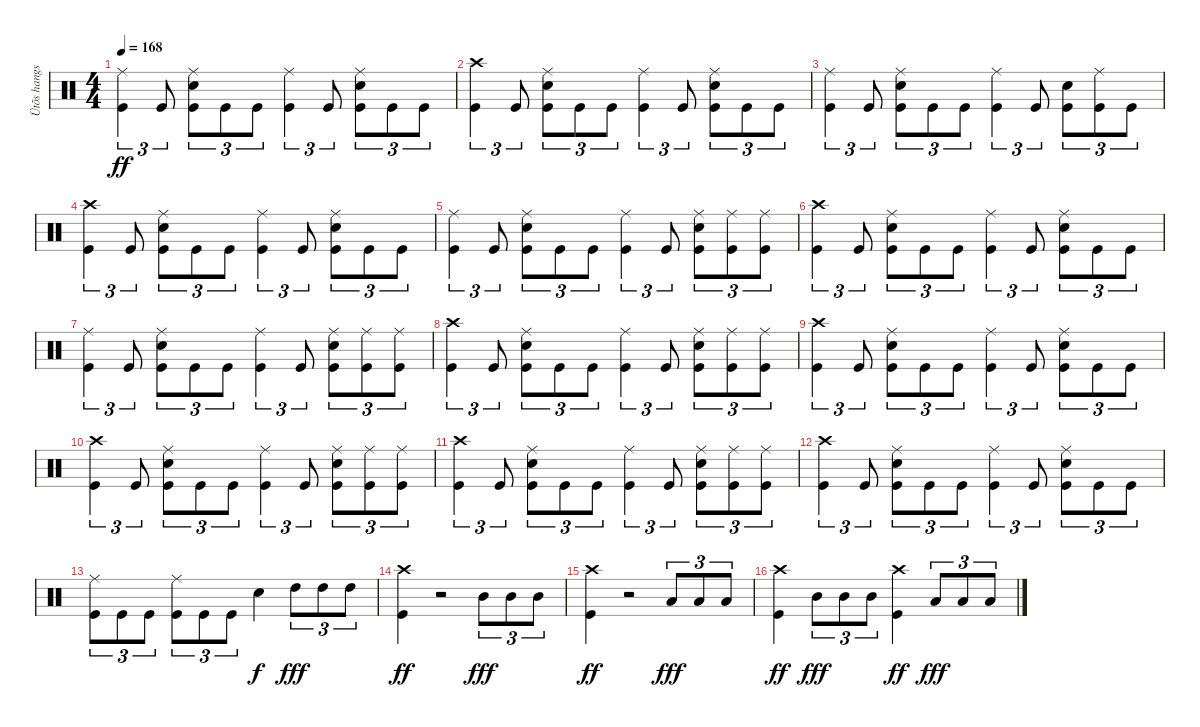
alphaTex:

\track ("Ütõs hangszer" "Ütõs hangs") {instrument percussion}
\staff {score}
\articulation defaults
\ts (4 4)
\tempo 168
\clef neutral
\ks c
("Ride (middle)" "Kick (hit)").4{tu (3 2) dy ff} "Kick (hit)".8{tu (3 2)} ("Ride (middle)" "Electric Snare (hit)" "Kick (hit)").8{tu (3 2)} "Kick (hit)".8{tu (3 2)} "Kick (hit)".8{tu (3 2)} ("Ride (middle)" "Kick (hit)").4{tu (3 2)} "Kick (hit)".8{tu (3 2)} ("Ride (middle)" "Electric Snare (hit)" "Kick (hit)").8{tu (3 2)} "Kick (hit)".8{tu (3 2)} "Kick (hit)".8{tu (3 2)} |
("Crash high (hit)" "Kick (hit)").4{tu (3 2)} "Kick (hit)".8{tu (3 2)} ("Ride (middle)" "Electric Snare (hit)" "Kick (hit)").8{tu (3 2)} "Kick (hit)".8{tu (3 2)} "Kick (hit)".8{tu (3 2)} ("Ride (middle)" "Kick (hit)").4{tu (3 2)} "Kick (hit)".8{tu (3 2)} ("Ride (middle)" "Electric Snare (hit)" "Kick (hit)").8{tu (3 2)} "Kick (hit)".8{tu (3 2)} "Kick (hit)".8{tu (3 2)} |
("Ride (middle)" "Kick (hit)").4{tu (3 2)} "Kick (hit)".8{tu (3 2)} ("Ride (middle)" "Electric Snare (hit)" "Kick (hit)").8{tu (3 2)} "Kick (hit)".8{tu (3 2)} "Kick (hit)".8{tu (3 2)} ("Ride (middle)" "Kick (hit)").4{tu (3 2)} "Kick (hit)".8{tu (3 2)} ("Electric Snare (hit)" "Kick (hit)").8{tu (3 2)} ("Ride (middle)" "Kick (hit)").8{tu (3 2)} "Kick (hit)".8{tu (3 2)} |
("Crash high (hit)" "Kick (hit)").4{tu (3 2)} "Kick (hit)".8{tu (3 2)} ("Ride (middle)" "Electric Snare (hit)" "Kick (hit)").8{tu (3 2)} "Kick (hit)".8{tu (3 2)} "Kick (hit)".8{tu (3 2)} ("Ride (middle)" "Kick (hit)").4{tu (3 2)} "Kick (hit)".8{tu (3 2)} ("Ride (middle)" "Electric Snare (hit)" "Kick (hit)").8{tu (3 2)} "Kick (hit)".8{tu (3 2)} "Kick (hit)".8{tu (3 2)} |
("Ride (middle)" "Kick (hit)").4{tu (3 2)} "Kick (hit)".8{tu (3 2)} ("Ride (middle)" "Electric Snare (hit)" "Kick (hit)").8{tu (3 2)} "Kick (hit)".8{tu (3 2)} "Kick (hit)".8{tu (3 2)} ("Ride (middle)" "Kick (hit)").4{tu (3 2)} "Kick (hit)".8{tu (3 2)} ("Ride (middle)" "Electric Snare (hit)" "Kick (hit)").8{tu (3 2)} ("Ride (middle)" "Kick (hit)").8{tu (3 2)} ("Ride (middle)" "Kick (hit)").8{tu (3 2)} |
("Crash high (hit)" "Kick (hit)").4{tu (3 2)} "Kick (hit)".8{tu (3 2)} ("Ride (middle)" "Electric Snare (hit)" "Kick (hit)").8{tu (3 2)} "Kick (hit)".8{tu (3 2)} "Kick (hit)".8{tu (3 2)} ("Ride (middle)" "Kick (hit)").4{tu (3 2)} "Kick (hit)".8{tu (3 2)} ("Ride (middle)" "Electric Snare (hit)" "Kick (hit)").8{tu (3 2)} "Kick (hit)".8{tu (3 2)} "Kick (hit)".8{tu (3 2)} |
("Ride (middle)" "Kick (hit)").4{tu (3 2)} "Kick (hit)".8{tu (3 2)} ("Ride (middle)" "Electric Snare (hit)" "Kick (hit)").8{tu (3 2)} "Kick (hit)".8{tu (3 2)} "Kick (hit)".8{tu (3 2)} ("Ride (middle)" "Kick (hit)").4{tu (3 2)} "Kick (hit)".8{tu (3 2)} ("Ride (middle)" "Electric Snare (hit)" "Kick (hit)").8{tu (3 2)} ("Ride (middle)" "Kick (hit)").8{tu (3 2)} ("Ride (middle)" "Kick (hit)").8{tu (3 2)} |
("Crash high (hit)" "Kick (hit)").4{tu (3 2)} "Kick (hit)".8{tu (3 2)} ("Ride (middle)" "Electric Snare (hit)" "Kick (hit)").8{tu (3 2)} "Kick (hit)".8{tu (3 2)} "Kick (hit)".8{tu (3 2)} ("Ride (middle)" "Kick (hit)").4{tu (3 2)} "Kick (hit)".8{tu (3 2)} ("Ride (middle)" "Electric Snare (hit)" "Kick (hit)").8{tu (3 2)} ("Ride (middle)" "Kick (hit)").8{tu (3 2)} ("Ride (middle)" "Kick (hit)").8{tu (3 2)} |
("Crash high (hit)" "Kick (hit)").4{tu (3 2)} "Kick (hit)".8{tu (3 2)} ("Ride (middle)" "Electric Snare (hit)" "Kick (hit)").8{tu (3 2)} "Kick (hit)".8{tu (3 2)} "Kick (hit)".8{tu (3 2)} ("Ride (middle)" "Kick (hit)").4{tu (3 2)} "Kick (hit)".8{tu (3 2)} ("Ride (middle)" "Electric Snare (hit)" "Kick (hit)").8{tu (3 2)} "Kick (hit)".8{tu (3 2)} "Kick (hit)".8{tu (3 2)} |
("Crash high (hit)" "Kick (hit)").4{tu (3 2)} "Kick (hit)".8{tu (3 2)} ("Ride (middle)" "Electric Snare (hit)" "Kick (hit)").8{tu (3 2)} "Kick (hit)".8{tu (3 2)} "Kick (hit)".8{tu (3 2)} ("Ride (middle)" "Kick (hit)").4{tu (3 2)} "Kick (hit)".8{tu (3 2)} ("Ride (middle)" "Electric Snare (hit)" "Kick (hit)").8{tu (3 2)} ("Ride (middle)" "Kick (hit)").8{tu (3 2)} ("Ride (middle)" "Kick (hit)").8{tu (3 2)} |
("Crash high (hit)" "Kick (hit)").4{tu (3 2)} "Kick (hit)".8{tu (3 2)} ("Ride (middle)" "Electric Snare (hit)" "Kick (hit)").8{tu (3 2)} "Kick (hit)".8{tu (3 2)} "Kick (hit)".8{tu (3 2)} ("Ride (middle)" "Kick (hit)").4{tu (3 2)} "Kick (hit)".8{tu (3 2)} ("Ride (middle)" "Electric Snare (hit)" "Kick (hit)").8{tu (3 2)} ("Ride (middle)" "Kick (hit)").8{tu (3 2)} ("Ride (middle)" "Kick (hit)").8{tu (3 2)} |
("Crash high (hit)" "Kick (hit)").4{tu (3 2)} "Kick (hit)".8{tu (3 2)} ("Ride (middle)" "Electric Snare (hit)" "Kick (hit)").8{tu (3 2)} "Kick (hit)".8{tu (3 2)} "Kick (hit)".8{tu (3 2)} ("Ride (middle)" "Kick (hit)").4{tu (3 2)} "Kick (hit)".8{tu (3 2)} ("Ride (middle)" "Electric Snare (hit)" "Kick (hit)").8{tu (3 2)} "Kick (hit)".8{tu (3 2)} "Kick (hit)".8{tu (3 2)} |
("Ride (middle)" "Kick (hit)").8{tu (3 2)} "Kick (hit)".8{tu (3 2)} "Kick (hit)".8{tu (3 2)} ("Ride (middle)" "Kick (hit)").8{tu (3 2)} "Kick (hit)".8{tu (3 2)} "Kick (hit)".8{tu (3 2)} "Electric Snare (hit)".4{dy f} "High Tom (hit)".8{tu (3 2) dy fff} "High Tom (hit)".8{tu (3 2)} "High Tom (hit)".8{tu (3 2)} |
("Crash high (hit)" "Kick (hit)").4{dy ff} r.2 "Mid Tom (hit)".8{tu (3 2) dy fff} "Mid Tom (hit)".8{tu (3 2)} "Mid Tom (hit)".8{tu (3 2)} |
("Crash high (hit)" "Kick (hit)").4{dy ff} r.2 "Low Tom (hit)".8{tu (3 2) dy fff} "Low Tom (hit)".8{tu (3 2)} "Low Tom (hit)".8{tu (3 2)} |
("Crash high (hit)" "Kick (hit)").4{dy ff} "Mid Tom (hit)".8{tu (3 2) dy fff} "Mid Tom (hit)".8{tu (3 2)} "Mid Tom (hit)".8{tu (3 2)} ("Crash high (hit)" "Kick (hit)").4{dy ff} "Low Tom (hit)".8{tu (3 2) dy fff} "Low Tom (hit)".8{tu (3 2)} "Low Tom (hit)".8{tu (3 2)}
